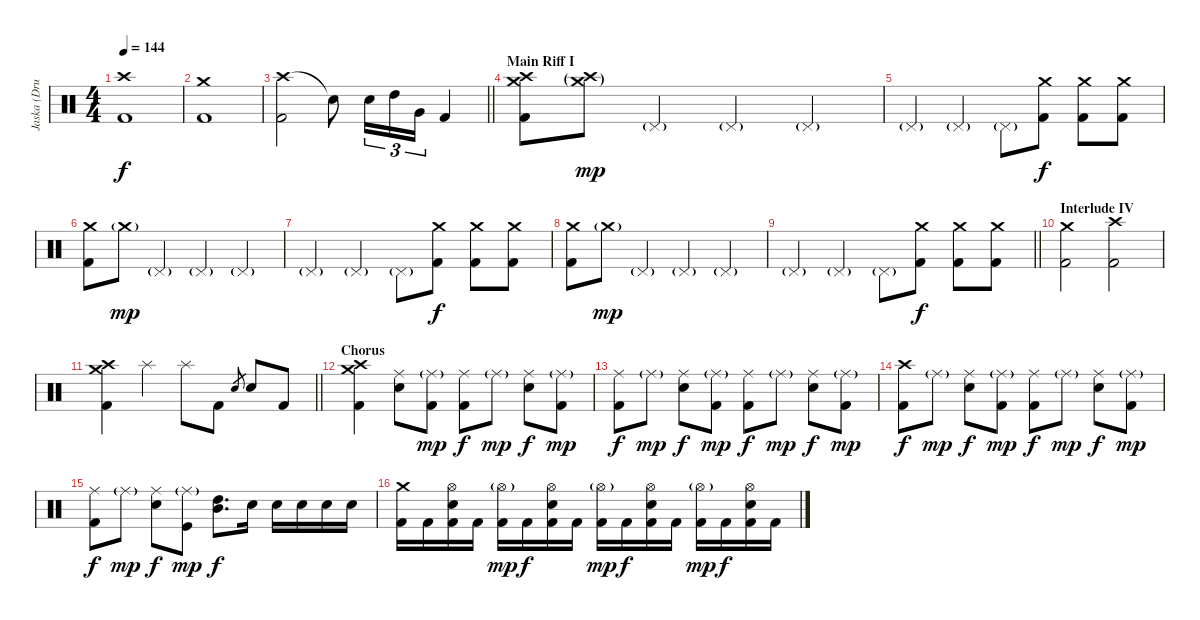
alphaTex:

\track ("Jaska (Drums)" "Jaska (Dru") {instrument percussion}
\staff {score}
\articulation defaults
\ts (4 4)
\tempo 144
\clef neutral
\ks c
("Crash high (hit)" "Kick (hit) 2").1{dy f} |
("Crash medium (hit)" "Kick (hit) 2").1 |
\barLineRight lightlight
("Crash high (hit)" "Kick (hit) 2").2 "Snare (hit)"{t}.8 "Electric Snare (hit)".16{tu (3 2)} "High Tom (hit)".16{tu (3 2)} "Very Low Tom (hit)".16{tu (3 2)} "Kick (hit) 2".4 |
\section ("" "Main Riff I")
("Crash medium (hit)" "Crash high (hit)" "Kick (hit) 2").8 ("Crash medium (hit)"{g} "Crash high (hit)"{g}).8{dy mp volume 0} "Pedal Hi-Hat (hit)"{g}.4{volume 5} "Pedal Hi-Hat (hit)"{g}.4 "Pedal Hi-Hat (hit)"{g}.4 |
"Pedal Hi-Hat (hit)"{g}.4 "Pedal Hi-Hat (hit)"{g}.4 "Pedal Hi-Hat (hit)"{g}.8 ("Crash medium (hit)" "Kick (hit) 2").8{dy f volume 16} ("Crash medium (hit)" "Kick (hit) 2").8 ("Crash medium (hit)" "Kick (hit) 2").8 |
("Crash medium (hit)" "Kick (hit) 2").8 "Crash medium (hit)"{g}.8{dy mp volume 0} "Pedal Hi-Hat (hit)"{g}.4{volume 5} "Pedal Hi-Hat (hit)"{g}.4 "Pedal Hi-Hat (hit)"{g}.4 |
"Pedal Hi-Hat (hit)"{g}.4 "Pedal Hi-Hat (hit)"{g}.4 "Pedal Hi-Hat (hit)"{g}.8 ("Crash medium (hit)" "Kick (hit) 2").8{dy f volume 16} ("Crash medium (hit)" "Kick (hit) 2").8 ("Crash medium (hit)" "Kick (hit) 2").8 |
("Crash medium (hit)" "Kick (hit) 2").8 "Crash medium (hit)"{g}.8{dy mp volume 0} "Pedal Hi-Hat (hit)"{g}.4{volume 5} "Pedal Hi-Hat (hit)"{g}.4 "Pedal Hi-Hat (hit)"{g}.4 |
\barLineRight lightlight "Pedal Hi-Hat (hit)"{g}.4 "Pedal Hi-Hat (hit)"{g}.4 "Pedal Hi-Hat (hit)"{g}.8
("Crash medium (hit)" "Kick (hit) 2").8{dy f volume 16} ("Crash medium (hit)" "Kick (hit) 2").8 ("Crash medium (hit)" "Kick (hit) 2").8 |
\section ("" "Interlude IV")
("Crash medium (hit)" "Kick (hit) 2").2 ("Crash high (hit)" "Kick (hit) 2").2 |
\barLineRight lightlight
("Crash medium (hit)" "Crash high (hit)" "Kick (hit) 2").4 "Splash (hit)".4 "Splash (hit)".8 "Kick (hit) 2".8 "Electric Snare (hit)".8{gr} "Electric Snare (hit)".8 "Kick (hit) 2".8 |
\section ("" "Chorus")
("Crash medium (hit)" "Crash high (hit)" "Kick (hit) 2").4 ("Ride (middle)" "Electric Snare (hit)").8 ("Ride (middle)"{g} "Kick (hit) 2").8{dy mp} ("Ride (middle)" "Kick (hit) 2").8{dy f} "Ride (middle)"{g}.8{dy mp} ("Ride (middle)" "Electric Snare (hit)").8{dy f} ("Ride (middle)"{g} "Kick (hit) 2").8{dy mp} |
("Ride (middle)" "Kick (hit) 2").8{dy f} "Ride (middle)"{g}.8{dy mp} ("Ride (middle)" "Electric Snare (hit)").8{dy f} ("Ride (middle)"{g} "Kick (hit) 2").8{dy mp} ("Ride (middle)" "Kick (hit) 2").8{dy f} "Ride (middle)"{g}.8{dy mp} ("Ride (middle)" "Electric Snare (hit)").8{dy f} ("Ride (middle)"{g} "Kick (hit) 2").8{dy mp} |
("Crash high (hit)" "Kick (hit) 2").8{dy f} "Ride (middle)"{g}.8{dy mp} ("Ride (middle)" "Electric Snare (hit)").8{dy f} ("Ride (middle)"{g} "Kick (hit) 2").8{dy mp} ("Ride (middle)" "Kick (hit) 2").8{dy f} "Ride (middle)"{g}.8{dy mp} ("Ride (middle)" "Electric Snare (hit)").8{dy f} ("Ride (middle)"{g} "Kick (hit) 2").8{dy mp} |
("Ride (middle)" "Kick (hit) 2").8{dy f} "Ride (middle)"{g}.8{dy mp} ("Ride (middle)" "Electric Snare (hit)").8{dy f} ("Ride (middle)"{g} "Kick (hit)").8{dy mp} ("High Tom (hit)" "Mid Tom (hit)").8{d dy f} "Electric Snare (hit)".16 "Electric Snare (hit)".16 "Electric Snare (hit)".16 "Electric Snare (hit)".16 "Electric Snare (hit)".16 |
("Crash medium (hit)" "Kick (hit) 2").16 "Kick (hit) 2".16 ("Hi-Hat (open)" "Electric Snare (hit)" "Kick (hit) 2").16 "Kick (hit) 2".16 ("Hi-Hat (open)"{g} "Kick (hit) 2").16{dy mp} "Kick (hit) 2".16{dy f} ("Hi-Hat (open)" "Electric Snare (hit)" "Kick (hit) 2").16 "Kick (hit) 2".16 ("Hi-Hat (open)"{g} "Kick (hit) 2").16{dy mp} "Kick (hit) 2".16{dy f} ("Hi-Hat (open)" "Electric Snare (hit)" "Kick (hit) 2").16 "Kick (hit) 2".16 ("Hi-Hat (open)"{g} "Kick (hit) 2").16{dy mp} "Kick (hit) 2".16{dy f} ("Hi-Hat (open)" "Electric Snare (hit)" "Kick (hit) 2").16 "Kick (hit) 2".16
